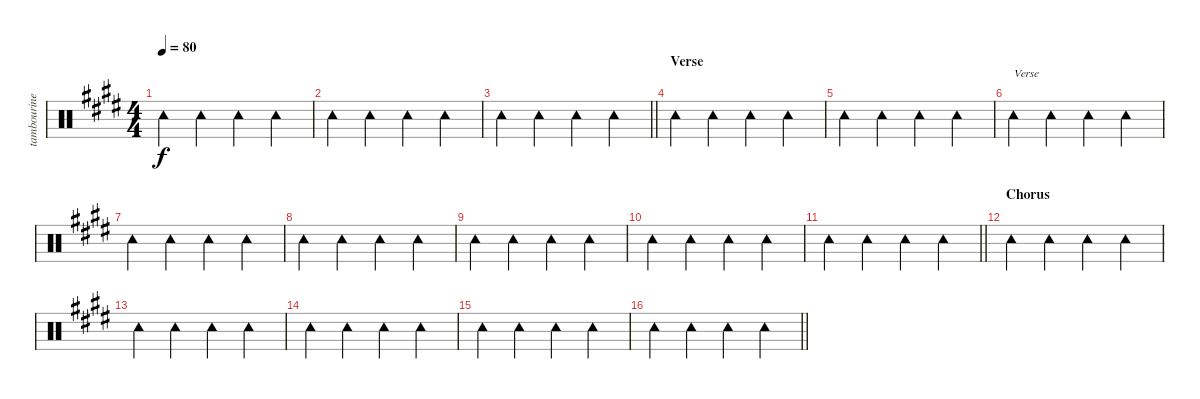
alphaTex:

\track ("tambourine" "tambourine") {instrument percussion}
\staff {score}
\articulation defaults
\ts (4 4)
\tempo 80
\clef neutral
\ks e "Tambourine (hit)".4{dy f} "Tambourine (hit)".4 "Tambourine (hit)".4 "Tambourine (hit)".4
|
"Tambourine (hit)".4 "Tambourine (hit)".4 "Tambourine (hit)".4 "Tambourine (hit)".4 |
\barLineRight lightlight "Tambourine (hit)".4 "Tambourine (hit)".4 "Tambourine (hit)".4 "Tambourine (hit)".4
|
\section ("" "Verse")
"Tambourine (hit)".4 "Tambourine (hit)".4 "Tambourine (hit)".4 "Tambourine (hit)".4 |
"Tambourine (hit)".4 "Tambourine (hit)".4 "Tambourine (hit)".4 "Tambourine (hit)".4 |
"Tambourine (hit)".4{txt "Verse"} "Tambourine (hit)".4 "Tambourine (hit)".4 "Tambourine (hit)".4 |
"Tambourine (hit)".4 "Tambourine (hit)".4 "Tambourine (hit)".4 "Tambourine (hit)".4 |
"Tambourine (hit)".4 "Tambourine (hit)".4 "Tambourine (hit)".4 "Tambourine (hit)".4 |
"Tambourine (hit)".4 "Tambourine (hit)".4 "Tambourine (hit)".4 "Tambourine (hit)".4 |
"Tambourine (hit)".4 "Tambourine (hit)".4 "Tambourine (hit)".4 "Tambourine (hit)".4 |
\barLineRight lightlight "Tambourine (hit)".4 "Tambourine (hit)".4 "Tambourine (hit)".4 "Tambourine (hit)".4
|
\section ("" "Chorus")
"Tambourine (hit)".4 "Tambourine (hit)".4 "Tambourine (hit)".4 "Tambourine (hit)".4 |
"Tambourine (hit)".4 "Tambourine (hit)".4 "Tambourine (hit)".4 "Tambourine (hit)".4 |
"Tambourine (hit)".4 "Tambourine (hit)".4 "Tambourine (hit)".4 "Tambourine (hit)".4 |
"Tambourine (hit)".4 "Tambourine (hit)".4 "Tambourine (hit)".4 "Tambourine (hit)".4 |
\barLineRight lightlight "Tambourine (hit)".4 "Tambourine (hit)".4 "Tambourine (hit)".4 "Tambourine (hit)".4
